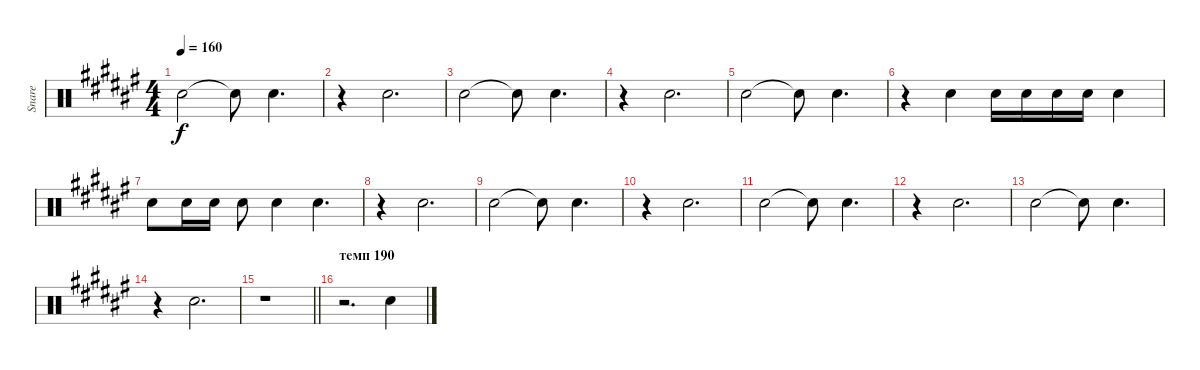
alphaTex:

\track ("Snare" "Snare") {instrument percussion}
\staff {score}
\articulation defaults
\ts (4 4)
\tempo 160
\clef neutral
\ks d#minor "Electric Snare (hit)".2{dy f} "Electric Snare (hit)"{t}.8 "Electric Snare (hit)".4{d}
|
r.4 "Electric Snare (hit)".2{d} |
"Electric Snare (hit)".2 "Electric Snare (hit)"{t}.8 "Electric Snare (hit)".4{d} |
r.4 "Electric Snare (hit)".2{d} |
"Electric Snare (hit)".2 "Electric Snare (hit)"{t}.8 "Electric Snare (hit)".4{d} |
r.4 "Electric Snare (hit)".4 "Electric Snare (hit)".16 "Electric Snare (hit)".16 "Electric Snare (hit)".16 "Electric Snare (hit)".16 "Electric Snare (hit)".4 |
"Electric Snare (hit)".8 "Electric Snare (hit)".16 "Electric Snare (hit)".16 "Electric Snare (hit)".8 "Electric Snare (hit)".4 "Electric Snare (hit)".4{d} |
r.4 "Electric Snare (hit)".2{d} |
"Electric Snare (hit)".2 "Electric Snare (hit)"{t}.8 "Electric Snare (hit)".4{d} |
r.4 "Electric Snare (hit)".2{d} |
"Electric Snare (hit)".2 "Electric Snare (hit)"{t}.8 "Electric Snare (hit)".4{d} |
r.4 "Electric Snare (hit)".2{d} |
"Electric Snare (hit)".2 "Electric Snare (hit)"{t}.8 "Electric Snare (hit)".4{d} |
r.4 "Electric Snare (hit)".2{d} |
\barLineRight lightlight
r.1 |
\section ("" "темп 190")
r.2{d} "Electric Snare (hit)".4
